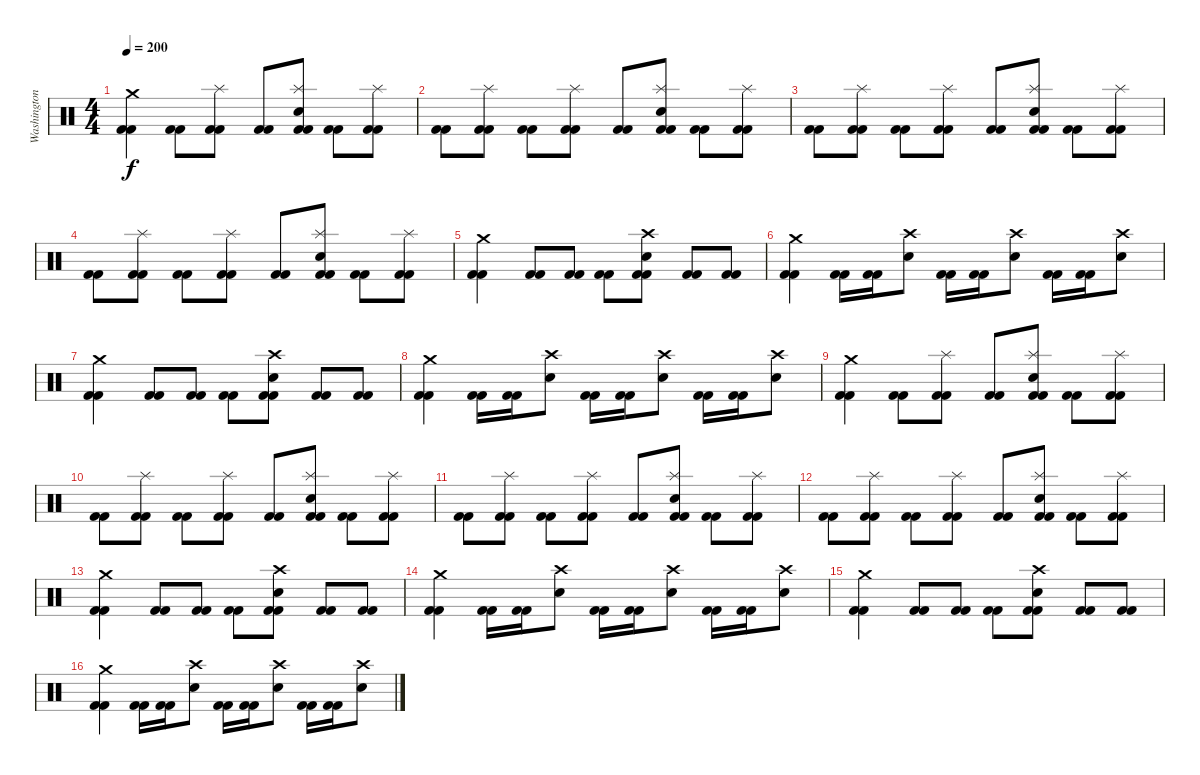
\track ("Washington" "Washington") {instrument percussion}
\staff {score}
\articulation defaults
\ts (4 4)
\tempo 200
\clef neutral
\ks c
("Crash medium (hit)" "Kick (hit) 2" "Kick (hit) 2").4{dy f} ("Kick (hit) 2" "Kick (hit) 2").8 ("Splash (hit)" "Kick (hit) 2" "Kick (hit) 2").8 ("Kick (hit) 2" "Kick (hit) 2").8 ("Splash (hit)" "Electric Snare (hit)" "Kick (hit) 2" "Kick (hit) 2").8 ("Kick (hit) 2" "Kick (hit) 2").8 ("Splash (hit)" "Kick (hit) 2" "Kick (hit) 2").8 |
("Kick (hit) 2" "Kick (hit) 2").8 ("Splash (hit)" "Kick (hit) 2" "Kick (hit) 2").8 ("Kick (hit) 2" "Kick (hit) 2").8 ("Splash (hit)" "Kick (hit) 2" "Kick (hit) 2").8 ("Kick (hit) 2" "Kick (hit) 2").8 ("Splash (hit)" "Electric Snare (hit)" "Kick (hit) 2" "Kick (hit) 2").8 ("Kick (hit) 2" "Kick (hit) 2").8 ("Splash (hit)" "Kick (hit) 2" "Kick (hit) 2").8 |
("Kick (hit) 2" "Kick (hit) 2").8 ("Splash (hit)" "Kick (hit) 2" "Kick (hit) 2").8 ("Kick (hit) 2" "Kick (hit) 2").8 ("Splash (hit)" "Kick (hit) 2" "Kick (hit) 2").8 ("Kick (hit) 2" "Kick (hit) 2").8 ("Splash (hit)" "Electric Snare (hit)" "Kick (hit) 2" "Kick (hit) 2").8 ("Kick (hit) 2" "Kick (hit) 2").8 ("Splash (hit)" "Kick (hit) 2" "Kick (hit) 2").8 |
("Kick (hit) 2" "Kick (hit) 2").8 ("Splash (hit)" "Kick (hit) 2" "Kick (hit) 2").8 ("Kick (hit) 2" "Kick (hit) 2").8 ("Splash (hit)" "Kick (hit) 2" "Kick (hit) 2").8 ("Kick (hit) 2" "Kick (hit) 2").8 ("Splash (hit)" "Electric Snare (hit)" "Kick (hit) 2" "Kick (hit) 2").8 ("Kick (hit) 2" "Kick (hit) 2").8 ("Splash (hit)" "Kick (hit) 2" "Kick (hit) 2").8 |
("Crash medium (hit)" "Kick (hit) 2" "Kick (hit) 2").4 ("Kick (hit) 2" "Kick (hit) 2").8 ("Kick (hit) 2" "Kick (hit) 2").8 ("Kick (hit) 2" "Kick (hit) 2").8 ("Crash high (hit)" "Electric Snare (hit)" "Kick (hit) 2" "Kick (hit) 2").8 ("Kick (hit) 2" "Kick (hit) 2").8 ("Kick (hit) 2" "Kick (hit) 2").8 |
("Crash medium (hit)" "Kick (hit) 2" "Kick (hit) 2").4 ("Kick (hit) 2" "Kick (hit) 2").16 ("Kick (hit) 2" "Kick (hit) 2").16 ("Crash high (hit)" "Electric Snare (hit)").8 ("Kick (hit) 2" "Kick (hit) 2").16 ("Kick (hit) 2" "Kick (hit) 2").16 ("Crash high (hit)" "Electric Snare (hit)").8 ("Kick (hit) 2" "Kick (hit) 2").16 ("Kick (hit) 2" "Kick (hit) 2").16 ("Crash high (hit)" "Electric Snare (hit)").8 |
("Crash medium (hit)" "Kick (hit) 2" "Kick (hit) 2").4 ("Kick (hit) 2" "Kick (hit) 2").8 ("Kick (hit) 2" "Kick (hit) 2").8 ("Kick (hit) 2" "Kick (hit) 2").8 ("Crash high (hit)" "Electric Snare (hit)" "Kick (hit) 2" "Kick (hit) 2").8 ("Kick (hit) 2" "Kick (hit) 2").8 ("Kick (hit) 2" "Kick (hit) 2").8 |
("Crash medium (hit)" "Kick (hit) 2" "Kick (hit) 2").4 ("Kick (hit) 2" "Kick (hit) 2").16 ("Kick (hit) 2" "Kick (hit) 2").16 ("Crash high (hit)" "Electric Snare (hit)").8 ("Kick (hit) 2" "Kick (hit) 2").16 ("Kick (hit) 2" "Kick (hit) 2").16 ("Crash high (hit)" "Electric Snare (hit)").8 ("Kick (hit) 2" "Kick (hit) 2").16 ("Kick (hit) 2" "Kick (hit) 2").16 ("Crash high (hit)" "Electric Snare (hit)").8 |
("Crash medium (hit)" "Kick (hit) 2" "Kick (hit) 2").4 ("Kick (hit) 2" "Kick (hit) 2").8 ("Splash (hit)" "Kick (hit) 2" "Kick (hit) 2").8 ("Kick (hit) 2" "Kick (hit) 2").8 ("Splash (hit)" "Electric Snare (hit)" "Kick (hit) 2" "Kick (hit) 2").8 ("Kick (hit) 2" "Kick (hit) 2").8 ("Splash (hit)" "Kick (hit) 2" "Kick (hit) 2").8 |
("Kick (hit) 2" "Kick (hit) 2").8 ("Splash (hit)" "Kick (hit) 2" "Kick (hit) 2").8 ("Kick (hit) 2" "Kick (hit) 2").8 ("Splash (hit)" "Kick (hit) 2" "Kick (hit) 2").8 ("Kick (hit) 2" "Kick (hit) 2").8 ("Splash (hit)" "Electric Snare (hit)" "Kick (hit) 2" "Kick (hit) 2").8 ("Kick (hit) 2" "Kick (hit) 2").8 ("Splash (hit)" "Kick (hit) 2" "Kick (hit) 2").8 |
("Kick (hit) 2" "Kick (hit) 2").8 ("Splash (hit)" "Kick (hit) 2" "Kick (hit) 2").8 ("Kick (hit) 2" "Kick (hit) 2").8 ("Splash (hit)" "Kick (hit) 2" "Kick (hit) 2").8 ("Kick (hit) 2" "Kick (hit) 2").8 ("Splash (hit)" "Electric Snare (hit)" "Kick (hit) 2" "Kick (hit) 2").8 ("Kick (hit) 2" "Kick (hit) 2").8 ("Splash (hit)" "Kick (hit) 2" "Kick (hit) 2").8 |
("Kick (hit) 2" "Kick (hit) 2").8 ("Splash (hit)" "Kick (hit) 2" "Kick (hit) 2").8 ("Kick (hit) 2" "Kick (hit) 2").8 ("Splash (hit)" "Kick (hit) 2" "Kick (hit) 2").8 ("Kick (hit) 2" "Kick (hit) 2").8 ("Splash (hit)" "Electric Snare (hit)" "Kick (hit) 2" "Kick (hit) 2").8 ("Kick (hit) 2" "Kick (hit) 2").8 ("Splash (hit)" "Kick (hit) 2" "Kick (hit) 2").8 |
("Crash medium (hit)" "Kick (hit) 2" "Kick (hit) 2").4 ("Kick (hit) 2" "Kick (hit) 2").8 ("Kick (hit) 2" "Kick (hit) 2").8 ("Kick (hit) 2" "Kick (hit) 2").8 ("Crash high (hit)" "Electric Snare (hit)" "Kick (hit) 2" "Kick (hit) 2").8 ("Kick (hit) 2" "Kick (hit) 2").8 ("Kick (hit) 2" "Kick (hit) 2").8 |
("Crash medium (hit)" "Kick (hit) 2" "Kick (hit) 2").4 ("Kick (hit) 2" "Kick (hit) 2").16 ("Kick (hit) 2" "Kick (hit) 2").16 ("Crash high (hit)" "Electric Snare (hit)").8 ("Kick (hit) 2" "Kick (hit) 2").16 ("Kick (hit) 2" "Kick (hit) 2").16 ("Crash high (hit)" "Electric Snare (hit)").8 ("Kick (hit) 2" "Kick (hit) 2").16 ("Kick (hit) 2" "Kick (hit) 2").16 ("Crash high (hit)" "Electric Snare (hit)").8 |
("Crash medium (hit)" "Kick (hit) 2" "Kick (hit) 2").4 ("Kick (hit) 2" "Kick (hit) 2").8 ("Kick (hit) 2" "Kick (hit) 2").8 ("Kick (hit) 2" "Kick (hit) 2").8 ("Crash high (hit)" "Electric Snare (hit)" "Kick (hit) 2" "Kick (hit) 2").8 ("Kick (hit) 2" "Kick (hit) 2").8 ("Kick (hit) 2" "Kick (hit) 2").8 |
("Crash medium (hit)" "Kick (hit) 2" "Kick (hit) 2").4 ("Kick (hit) 2" "Kick (hit) 2").16 ("Kick (hit) 2" "Kick (hit) 2").16 ("Crash high (hit)" "Electric Snare (hit)").8 ("Kick (hit) 2" "Kick (hit) 2").16 ("Kick (hit) 2" "Kick (hit) 2").16 ("Crash high (hit)" "Electric Snare (hit)").8 ("Kick (hit) 2" "Kick (hit) 2").16 ("Kick (hit) 2" "Kick (hit) 2").16 ("Crash high (hit)" "Electric Snare (hit)").8
